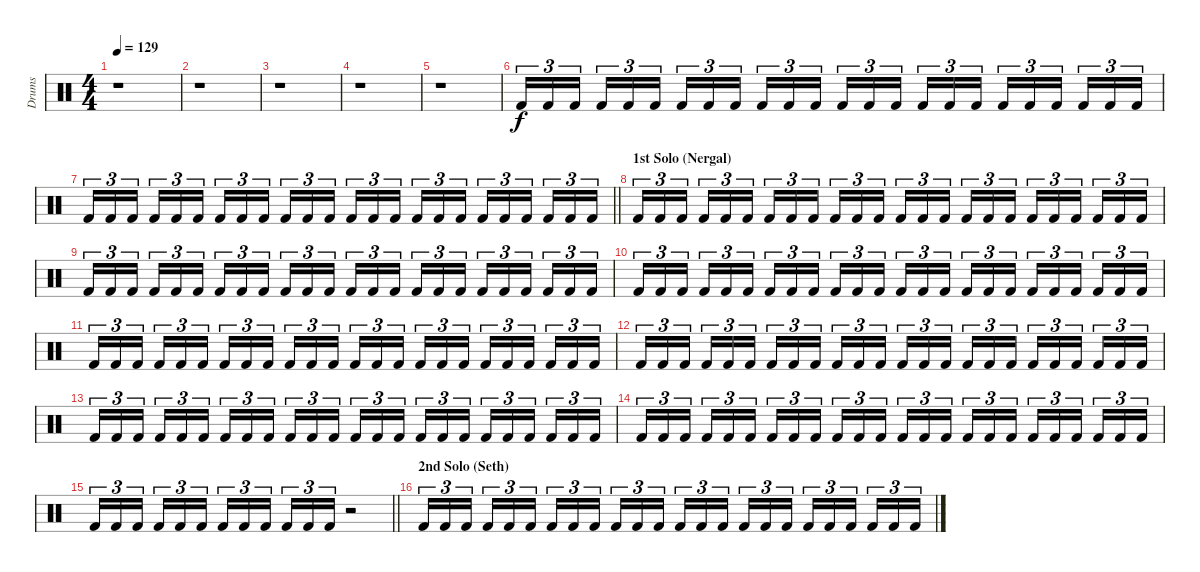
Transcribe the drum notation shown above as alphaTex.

\track ("Drums" "Drums") {instrument percussion}
\staff {score}
\articulation defaults
\ts (4 4)
\tempo 129
\clef neutral
\ks c
r.1{dy f} |
r.1 |
r.1 |
r.1 |
r.1 |
"Kick (hit) 2".16{tu (3 2)} "Kick (hit) 2".16{tu (3 2)} "Kick (hit) 2".16{tu (3 2) beam splitsecondary} "Kick (hit) 2".16{tu (3 2)} "Kick (hit) 2".16{tu (3 2)} "Kick (hit) 2".16{tu (3 2)} "Kick (hit) 2".16{tu (3 2)} "Kick (hit) 2".16{tu (3 2)} "Kick (hit) 2".16{tu (3 2) beam splitsecondary} "Kick (hit) 2".16{tu (3 2)} "Kick (hit) 2".16{tu (3 2)} "Kick (hit) 2".16{tu (3 2)} "Kick (hit) 2".16{tu (3 2)} "Kick (hit) 2".16{tu (3 2)} "Kick (hit) 2".16{tu (3 2) beam splitsecondary} "Kick (hit) 2".16{tu (3 2)} "Kick (hit) 2".16{tu (3 2)} "Kick (hit) 2".16{tu (3 2)} "Kick (hit) 2".16{tu (3 2)} "Kick (hit) 2".16{tu (3 2)} "Kick (hit) 2".16{tu (3 2) beam splitsecondary} "Kick (hit) 2".16{tu (3 2)} "Kick (hit) 2".16{tu (3 2)} "Kick (hit) 2".16{tu (3 2)} |
\barLineRight lightlight "Kick (hit) 2".16{tu (3 2)} "Kick (hit) 2".16{tu (3 2)} "Kick (hit) 2".16{tu (3 2) beam splitsecondary} "Kick (hit) 2".16{tu (3 2)} "Kick (hit) 2".16{tu (3 2)} "Kick (hit) 2".16{tu (3 2)} "Kick (hit) 2".16{tu (3 2)} "Kick (hit) 2".16{tu (3 2)} "Kick (hit) 2".16{tu (3 2) beam splitsecondary} "Kick (hit) 2".16{tu (3 2)} "Kick (hit) 2".16{tu (3 2)} "Kick (hit) 2".16{tu (3 2)} "Kick (hit) 2".16{tu (3 2)} "Kick (hit) 2".16{tu (3 2)} "Kick (hit) 2".16{tu (3 2) beam splitsecondary} "Kick (hit) 2".16{tu (3 2)} "Kick (hit) 2".16{tu (3 2)} "Kick (hit) 2".16{tu (3 2)} "Kick (hit) 2".16{tu (3 2)} "Kick (hit) 2".16{tu (3 2)} "Kick (hit) 2".16{tu (3 2) beam splitsecondary} "Kick (hit) 2".16{tu (3 2)} "Kick (hit) 2".16{tu (3 2)} "Kick (hit) 2".16{tu (3 2)}
|
\section ("" "1st Solo (Nergal)")
"Kick (hit) 2".16{tu (3 2)} "Kick (hit) 2".16{tu (3 2)} "Kick (hit) 2".16{tu (3 2) beam splitsecondary} "Kick (hit) 2".16{tu (3 2)} "Kick (hit) 2".16{tu (3 2)} "Kick (hit) 2".16{tu (3 2)} "Kick (hit) 2".16{tu (3 2)} "Kick (hit) 2".16{tu (3 2)} "Kick (hit) 2".16{tu (3 2) beam splitsecondary} "Kick (hit) 2".16{tu (3 2)} "Kick (hit) 2".16{tu (3 2)} "Kick (hit) 2".16{tu (3 2)} "Kick (hit) 2".16{tu (3 2)} "Kick (hit) 2".16{tu (3 2)} "Kick (hit) 2".16{tu (3 2) beam splitsecondary} "Kick (hit) 2".16{tu (3 2)} "Kick (hit) 2".16{tu (3 2)} "Kick (hit) 2".16{tu (3 2)} "Kick (hit) 2".16{tu (3 2)} "Kick (hit) 2".16{tu (3 2)} "Kick (hit) 2".16{tu (3 2) beam splitsecondary} "Kick (hit) 2".16{tu (3 2)} "Kick (hit) 2".16{tu (3 2)} "Kick (hit) 2".16{tu (3 2)} |
"Kick (hit) 2".16{tu (3 2)} "Kick (hit) 2".16{tu (3 2)} "Kick (hit) 2".16{tu (3 2) beam splitsecondary} "Kick (hit) 2".16{tu (3 2)} "Kick (hit) 2".16{tu (3 2)} "Kick (hit) 2".16{tu (3 2)} "Kick (hit) 2".16{tu (3 2)} "Kick (hit) 2".16{tu (3 2)} "Kick (hit) 2".16{tu (3 2) beam splitsecondary} "Kick (hit) 2".16{tu (3 2)} "Kick (hit) 2".16{tu (3 2)} "Kick (hit) 2".16{tu (3 2)} "Kick (hit) 2".16{tu (3 2)} "Kick (hit) 2".16{tu (3 2)} "Kick (hit) 2".16{tu (3 2) beam splitsecondary} "Kick (hit) 2".16{tu (3 2)} "Kick (hit) 2".16{tu (3 2)} "Kick (hit) 2".16{tu (3 2)} "Kick (hit) 2".16{tu (3 2)} "Kick (hit) 2".16{tu (3 2)} "Kick (hit) 2".16{tu (3 2) beam splitsecondary} "Kick (hit) 2".16{tu (3 2)} "Kick (hit) 2".16{tu (3 2)} "Kick (hit) 2".16{tu (3 2)} |
"Kick (hit) 2".16{tu (3 2)} "Kick (hit) 2".16{tu (3 2)} "Kick (hit) 2".16{tu (3 2) beam splitsecondary} "Kick (hit) 2".16{tu (3 2)} "Kick (hit) 2".16{tu (3 2)} "Kick (hit) 2".16{tu (3 2)} "Kick (hit) 2".16{tu (3 2)} "Kick (hit) 2".16{tu (3 2)} "Kick (hit) 2".16{tu (3 2) beam splitsecondary} "Kick (hit) 2".16{tu (3 2)} "Kick (hit) 2".16{tu (3 2)} "Kick (hit) 2".16{tu (3 2)} "Kick (hit) 2".16{tu (3 2)} "Kick (hit) 2".16{tu (3 2)} "Kick (hit) 2".16{tu (3 2) beam splitsecondary} "Kick (hit) 2".16{tu (3 2)} "Kick (hit) 2".16{tu (3 2)} "Kick (hit) 2".16{tu (3 2)} "Kick (hit) 2".16{tu (3 2)} "Kick (hit) 2".16{tu (3 2)} "Kick (hit) 2".16{tu (3 2) beam splitsecondary} "Kick (hit) 2".16{tu (3 2)} "Kick (hit) 2".16{tu (3 2)} "Kick (hit) 2".16{tu (3 2)} |
"Kick (hit) 2".16{tu (3 2)} "Kick (hit) 2".16{tu (3 2)} "Kick (hit) 2".16{tu (3 2) beam splitsecondary} "Kick (hit) 2".16{tu (3 2)} "Kick (hit) 2".16{tu (3 2)} "Kick (hit) 2".16{tu (3 2)} "Kick (hit) 2".16{tu (3 2)} "Kick (hit) 2".16{tu (3 2)} "Kick (hit) 2".16{tu (3 2) beam splitsecondary} "Kick (hit) 2".16{tu (3 2)} "Kick (hit) 2".16{tu (3 2)} "Kick (hit) 2".16{tu (3 2)} "Kick (hit) 2".16{tu (3 2)} "Kick (hit) 2".16{tu (3 2)} "Kick (hit) 2".16{tu (3 2) beam splitsecondary} "Kick (hit) 2".16{tu (3 2)} "Kick (hit) 2".16{tu (3 2)} "Kick (hit) 2".16{tu (3 2)} "Kick (hit) 2".16{tu (3 2)} "Kick (hit) 2".16{tu (3 2)} "Kick (hit) 2".16{tu (3 2) beam splitsecondary} "Kick (hit) 2".16{tu (3 2)} "Kick (hit) 2".16{tu (3 2)} "Kick (hit) 2".16{tu (3 2)} |
"Kick (hit) 2".16{tu (3 2)} "Kick (hit) 2".16{tu (3 2)} "Kick (hit) 2".16{tu (3 2) beam splitsecondary} "Kick (hit) 2".16{tu (3 2)} "Kick (hit) 2".16{tu (3 2)} "Kick (hit) 2".16{tu (3 2)} "Kick (hit) 2".16{tu (3 2)} "Kick (hit) 2".16{tu (3 2)} "Kick (hit) 2".16{tu (3 2) beam splitsecondary} "Kick (hit) 2".16{tu (3 2)} "Kick (hit) 2".16{tu (3 2)} "Kick (hit) 2".16{tu (3 2)} "Kick (hit) 2".16{tu (3 2)} "Kick (hit) 2".16{tu (3 2)} "Kick (hit) 2".16{tu (3 2) beam splitsecondary} "Kick (hit) 2".16{tu (3 2)} "Kick (hit) 2".16{tu (3 2)} "Kick (hit) 2".16{tu (3 2)} "Kick (hit) 2".16{tu (3 2)} "Kick (hit) 2".16{tu (3 2)} "Kick (hit) 2".16{tu (3 2) beam splitsecondary} "Kick (hit) 2".16{tu (3 2)} "Kick (hit) 2".16{tu (3 2)} "Kick (hit) 2".16{tu (3 2)} |
"Kick (hit) 2".16{tu (3 2)} "Kick (hit) 2".16{tu (3 2)} "Kick (hit) 2".16{tu (3 2) beam splitsecondary} "Kick (hit) 2".16{tu (3 2)} "Kick (hit) 2".16{tu (3 2)} "Kick (hit) 2".16{tu (3 2)} "Kick (hit) 2".16{tu (3 2)} "Kick (hit) 2".16{tu (3 2)} "Kick (hit) 2".16{tu (3 2) beam splitsecondary} "Kick (hit) 2".16{tu (3 2)} "Kick (hit) 2".16{tu (3 2)} "Kick (hit) 2".16{tu (3 2)} "Kick (hit) 2".16{tu (3 2)} "Kick (hit) 2".16{tu (3 2)} "Kick (hit) 2".16{tu (3 2) beam splitsecondary} "Kick (hit) 2".16{tu (3 2)} "Kick (hit) 2".16{tu (3 2)} "Kick (hit) 2".16{tu (3 2)} "Kick (hit) 2".16{tu (3 2)} "Kick (hit) 2".16{tu (3 2)} "Kick (hit) 2".16{tu (3 2) beam splitsecondary} "Kick (hit) 2".16{tu (3 2)} "Kick (hit) 2".16{tu (3 2)} "Kick (hit) 2".16{tu (3 2)} |
"Kick (hit) 2".16{tu (3 2)} "Kick (hit) 2".16{tu (3 2)} "Kick (hit) 2".16{tu (3 2) beam splitsecondary} "Kick (hit) 2".16{tu (3 2)} "Kick (hit) 2".16{tu (3 2)} "Kick (hit) 2".16{tu (3 2)} "Kick (hit) 2".16{tu (3 2)} "Kick (hit) 2".16{tu (3 2)} "Kick (hit) 2".16{tu (3 2) beam splitsecondary} "Kick (hit) 2".16{tu (3 2)} "Kick (hit) 2".16{tu (3 2)} "Kick (hit) 2".16{tu (3 2)} "Kick (hit) 2".16{tu (3 2)} "Kick (hit) 2".16{tu (3 2)} "Kick (hit) 2".16{tu (3 2) beam splitsecondary} "Kick (hit) 2".16{tu (3 2)} "Kick (hit) 2".16{tu (3 2)} "Kick (hit) 2".16{tu (3 2)} "Kick (hit) 2".16{tu (3 2)} "Kick (hit) 2".16{tu (3 2)} "Kick (hit) 2".16{tu (3 2) beam splitsecondary} "Kick (hit) 2".16{tu (3 2)} "Kick (hit) 2".16{tu (3 2)} "Kick (hit) 2".16{tu (3 2)} |
\barLineRight lightlight "Kick (hit) 2".16{tu (3 2)} "Kick (hit) 2".16{tu (3 2)} "Kick (hit) 2".16{tu (3 2) beam splitsecondary} "Kick (hit) 2".16{tu (3 2)} "Kick (hit) 2".16{tu (3 2)} "Kick (hit) 2".16{tu (3 2)} "Kick (hit) 2".16{tu (3 2)} "Kick (hit) 2".16{tu (3 2)} "Kick (hit) 2".16{tu (3 2) beam splitsecondary} "Kick (hit) 2".16{tu (3 2)} "Kick (hit) 2".16{tu (3 2)} "Kick (hit) 2".16{tu (3 2)}
r.2 |
\section ("" "2nd Solo (Seth)")
"Kick (hit) 2".16{tu (3 2)} "Kick (hit) 2".16{tu (3 2)} "Kick (hit) 2".16{tu (3 2) beam splitsecondary} "Kick (hit) 2".16{tu (3 2)} "Kick (hit) 2".16{tu (3 2)} "Kick (hit) 2".16{tu (3 2)} "Kick (hit) 2".16{tu (3 2)} "Kick (hit) 2".16{tu (3 2)} "Kick (hit) 2".16{tu (3 2) beam splitsecondary} "Kick (hit) 2".16{tu (3 2)} "Kick (hit) 2".16{tu (3 2)} "Kick (hit) 2".16{tu (3 2)} "Kick (hit) 2".16{tu (3 2)} "Kick (hit) 2".16{tu (3 2)} "Kick (hit) 2".16{tu (3 2) beam splitsecondary} "Kick (hit) 2".16{tu (3 2)} "Kick (hit) 2".16{tu (3 2)} "Kick (hit) 2".16{tu (3 2)} "Kick (hit) 2".16{tu (3 2)} "Kick (hit) 2".16{tu (3 2)} "Kick (hit) 2".16{tu (3 2) beam splitsecondary} "Kick (hit) 2".16{tu (3 2)} "Kick (hit) 2".16{tu (3 2)} "Kick (hit) 2".16{tu (3 2)}
